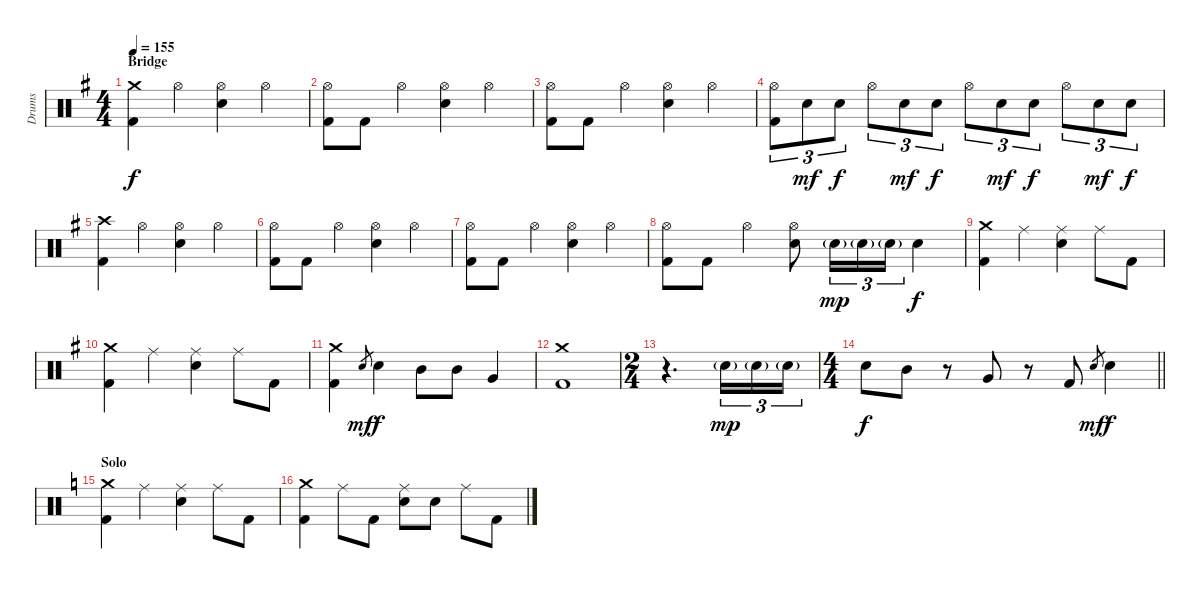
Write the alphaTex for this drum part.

\track ("Drums" "Drums") {instrument percussion}
\staff {score}
\articulation defaults
\ts (4 4)
\section ("" "Bridge")
\tempo 155
\clef neutral
\ks eminor
("Crash medium (hit)" "Kick (hit) 2").4{dy f} "Hi-Hat (open)".4 ("Hi-Hat (open)" "Electric Snare (hit)").4 "Hi-Hat (open)".4 |
("Hi-Hat (open)" "Kick (hit) 2").8 "Kick (hit) 2".8 "Hi-Hat (open)".4 ("Hi-Hat (open)" "Electric Snare (hit)").4 "Hi-Hat (open)".4 |
("Hi-Hat (open)" "Kick (hit) 2").8 "Kick (hit) 2".8 "Hi-Hat (open)".4 ("Hi-Hat (open)" "Electric Snare (hit)").4 "Hi-Hat (open)".4 |
("Hi-Hat (open)" "Kick (hit) 2").8{tu (3 2)} "Electric Snare (hit)".8{tu (3 2) dy mf} "Electric Snare (hit)".8{tu (3 2) dy f} "Hi-Hat (open)".8{tu (3 2)} "Electric Snare (hit)".8{tu (3 2) dy mf} "Electric Snare (hit)".8{tu (3 2) dy f} "Hi-Hat (open)".8{tu (3 2)} "Electric Snare (hit)".8{tu (3 2) dy mf} "Electric Snare (hit)".8{tu (3 2) dy f} "Hi-Hat (open)".8{tu (3 2)} "Electric Snare (hit)".8{tu (3 2) dy mf} "Electric Snare (hit)".8{tu (3 2) dy f} |
("Crash high (hit)" "Kick (hit) 2").4 "Hi-Hat (open)".4 ("Hi-Hat (open)" "Electric Snare (hit)").4 "Hi-Hat (open)".4 |
("Hi-Hat (open)" "Kick (hit) 2").8 "Kick (hit) 2".8 "Hi-Hat (open)".4 ("Hi-Hat (open)" "Electric Snare (hit)").4 "Hi-Hat (open)".4 |
("Hi-Hat (open)" "Kick (hit) 2").8 "Kick (hit) 2".8 "Hi-Hat (open)".4 ("Hi-Hat (open)" "Electric Snare (hit)").4 "Hi-Hat (open)".4 |
("Hi-Hat (open)" "Kick (hit) 2").8 "Kick (hit) 2".8 "Hi-Hat (open)".4 ("Hi-Hat (open)" "Electric Snare (hit)").8 "Electric Snare (hit)"{g}.16{tu (3 2) dy mp} "Electric Snare (hit)"{g}.16{tu (3 2)} "Electric Snare (hit)"{g}.16{tu (3 2)} "Electric Snare (hit)".4{dy f} |
("Crash medium (hit)" "Kick (hit) 2").4 "Ride (middle)".4 ("Ride (middle)" "Electric Snare (hit)").4 "Ride (middle)".8 "Kick (hit) 2".8 |
("Crash medium (hit)" "Kick (hit) 2").4 "Ride (middle)".4 ("Ride (middle)" "Electric Snare (hit)").4 "Ride (middle)".8 "Kick (hit) 2".8 |
("Crash medium (hit)" "Kick (hit) 2").4 "Electric Snare (hit)".8{gr dy mf} "Electric Snare (hit)".4{dy f} "Mid Tom (hit)".8 "Mid Tom (hit)".8 "Very Low Tom (hit)".4 |
("Crash medium (hit)" "Kick (hit) 2").1 |
\ts (2 4)
r.4{d} "Electric Snare (hit)"{g}.16{tu (3 2) dy mp} "Electric Snare (hit)"{g}.16{tu (3 2)} "Electric Snare (hit)"{g}.16{tu (3 2)} |
\ts (4 4)
\barLineRight lightlight "Electric Snare (hit)".8{dy f} "Mid Tom (hit)".8
r.8 "Very Low Tom (hit)".8 r.8 "Kick (hit) 2".8 "Electric Snare (hit)".8{gr dy mf} "Electric Snare (hit)".4{dy f} |
\section ("" "Solo")
\ks aminor
("Crash medium (hit)" "Kick (hit) 2").4 "Ride (middle)".4 ("Ride (middle)" "Electric Snare (hit)").4 "Ride (middle)".8 "Kick (hit) 2".8 |
("Crash medium (hit)" "Kick (hit) 2").4 "Ride (middle)".8 "Kick (hit) 2".8 ("Ride (middle)" "Electric Snare (hit)").8 "Electric Snare (hit)".8 "Ride (middle)".8 "Kick (hit) 2".8
